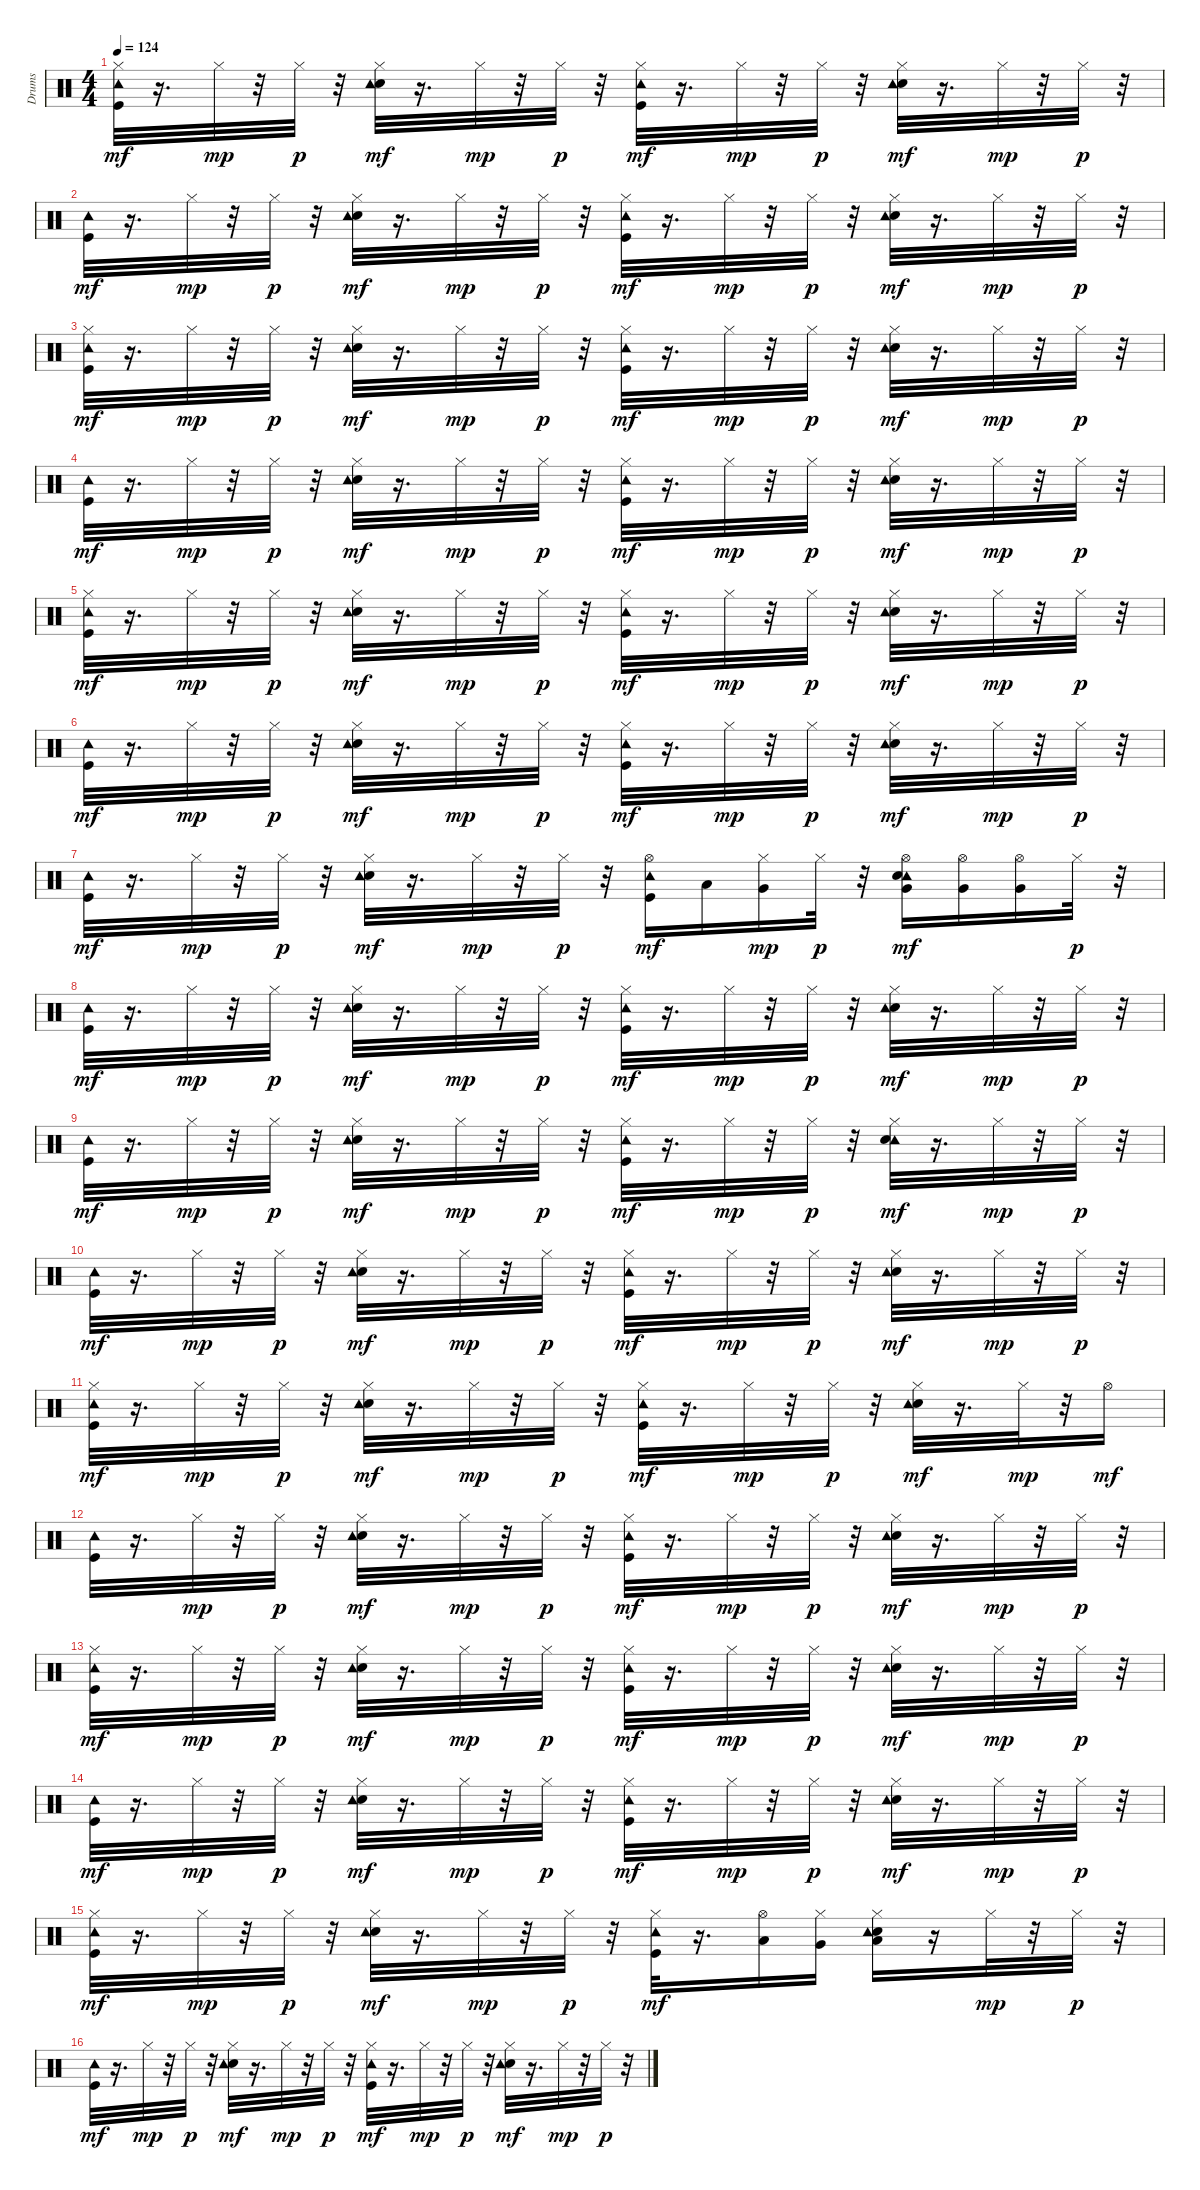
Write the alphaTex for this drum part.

\track ("Drums" "Drums") {instrument percussion}
\staff {score}
\articulation defaults
\ts (4 4)
\tempo 124
\clef neutral
\ks c
("Tambourine (hit)" "Hi-Hat (closed)" "Kick (hit)").32{dy mf} r.16{d} "Hi-Hat (closed)".32{dy mp} r.32 "Hi-Hat (closed)".32{dy p} r.32 ("Hi-Hat (closed)" "Snare (hit) 2" "Tambourine (hit)").32{dy mf} r.16{d} "Hi-Hat (closed)".32{dy mp} r.32 "Hi-Hat (closed)".32{dy p} r.32 ("Kick (hit)" "Tambourine (hit)" "Hi-Hat (closed)").32{dy mf} r.16{d} "Hi-Hat (closed)".32{dy mp} r.32 "Hi-Hat (closed)".32{dy p} r.32 ("Snare (hit) 2" "Tambourine (hit)" "Hi-Hat (closed)").32{dy mf} r.16{d} "Hi-Hat (closed)".32{dy mp} r.32 "Hi-Hat (closed)".32{dy p} r.32 |
("Tambourine (hit)" "Kick (hit)").32{dy mf} r.16{d} "Hi-Hat (closed)".32{dy mp} r.32 "Hi-Hat (closed)".32{dy p} r.32 ("Snare (hit) 2" "Tambourine (hit)" "Hi-Hat (closed)").32{dy mf} r.16{d} "Hi-Hat (closed)".32{dy mp} r.32 "Hi-Hat (closed)".32{dy p} r.32 ("Kick (hit)" "Tambourine (hit)" "Hi-Hat (closed)").32{dy mf} r.16{d} "Hi-Hat (closed)".32{dy mp} r.32 "Hi-Hat (closed)".32{dy p} r.32 ("Snare (hit) 2" "Tambourine (hit)" "Hi-Hat (closed)").32{dy mf} r.16{d} "Hi-Hat (closed)".32{dy mp} r.32 "Hi-Hat (closed)".32{dy p} r.32 |
("Tambourine (hit)" "Hi-Hat (closed)" "Kick (hit)").32{dy mf} r.16{d} "Hi-Hat (closed)".32{dy mp} r.32 "Hi-Hat (closed)".32{dy p} r.32 ("Hi-Hat (closed)" "Snare (hit) 2" "Tambourine (hit)").32{dy mf} r.16{d} "Hi-Hat (closed)".32{dy mp} r.32 "Hi-Hat (closed)".32{dy p} r.32 ("Kick (hit)" "Tambourine (hit)" "Hi-Hat (closed)").32{dy mf} r.16{d} "Hi-Hat (closed)".32{dy mp} r.32 "Hi-Hat (closed)".32{dy p} r.32 ("Snare (hit) 2" "Tambourine (hit)" "Hi-Hat (closed)").32{dy mf} r.16{d} "Hi-Hat (closed)".32{dy mp} r.32 "Hi-Hat (closed)".32{dy p} r.32 |
("Tambourine (hit)" "Kick (hit)").32{dy mf} r.16{d} "Hi-Hat (closed)".32{dy mp} r.32 "Hi-Hat (closed)".32{dy p} r.32 ("Snare (hit) 2" "Tambourine (hit)" "Hi-Hat (closed)").32{dy mf} r.16{d} "Hi-Hat (closed)".32{dy mp} r.32 "Hi-Hat (closed)".32{dy p} r.32 ("Kick (hit)" "Tambourine (hit)" "Hi-Hat (closed)").32{dy mf} r.16{d} "Hi-Hat (closed)".32{dy mp} r.32 "Hi-Hat (closed)".32{dy p} r.32 ("Snare (hit) 2" "Tambourine (hit)" "Hi-Hat (closed)").32{dy mf} r.16{d} "Hi-Hat (closed)".32{dy mp} r.32 "Hi-Hat (closed)".32{dy p} r.32 |
("Tambourine (hit)" "Hi-Hat (closed)" "Kick (hit)").32{dy mf} r.16{d} "Hi-Hat (closed)".32{dy mp} r.32 "Hi-Hat (closed)".32{dy p} r.32 ("Hi-Hat (closed)" "Snare (hit) 2" "Tambourine (hit)").32{dy mf} r.16{d} "Hi-Hat (closed)".32{dy mp} r.32 "Hi-Hat (closed)".32{dy p} r.32 ("Kick (hit)" "Tambourine (hit)" "Hi-Hat (closed)").32{dy mf} r.16{d} "Hi-Hat (closed)".32{dy mp} r.32 "Hi-Hat (closed)".32{dy p} r.32 ("Snare (hit) 2" "Tambourine (hit)" "Hi-Hat (closed)").32{dy mf} r.16{d} "Hi-Hat (closed)".32{dy mp} r.32 "Hi-Hat (closed)".32{dy p} r.32 |
("Tambourine (hit)" "Kick (hit)").32{dy mf} r.16{d} "Hi-Hat (closed)".32{dy mp} r.32 "Hi-Hat (closed)".32{dy p} r.32 ("Snare (hit) 2" "Tambourine (hit)" "Hi-Hat (closed)").32{dy mf} r.16{d} "Hi-Hat (closed)".32{dy mp} r.32 "Hi-Hat (closed)".32{dy p} r.32 ("Kick (hit)" "Tambourine (hit)" "Hi-Hat (closed)").32{dy mf} r.16{d} "Hi-Hat (closed)".32{dy mp} r.32 "Hi-Hat (closed)".32{dy p} r.32 ("Snare (hit) 2" "Tambourine (hit)" "Hi-Hat (closed)").32{dy mf} r.16{d} "Hi-Hat (closed)".32{dy mp} r.32 "Hi-Hat (closed)".32{dy p} r.32 |
("Tambourine (hit)" "Kick (hit)").32{dy mf} r.16{d} "Hi-Hat (closed)".32{dy mp} r.32 "Hi-Hat (closed)".32{dy p} r.32 ("Hi-Hat (closed)" "Snare (hit) 2" "Tambourine (hit)").32{dy mf} r.16{d} "Hi-Hat (closed)".32{dy mp} r.32 "Hi-Hat (closed)".32{dy p} r.32 ("Hi-Hat (open)" "Kick (hit)" "Tambourine (hit)").16{dy mf} "Low Floor Tom (hit)".16 ("Very Low Tom (hit)" "Hi-Hat (closed)").16{dy mp} "Hi-Hat (closed)".32{dy p} r.32 ("Very Low Tom (hit)" "Tambourine (hit)" "Hi-Hat (open)" "Snare (hit) 2").16{dy mf} ("Very Low Tom (hit)" "Hi-Hat (open)").16 ("Very Low Tom (hit)" "Hi-Hat (open)").16 "Hi-Hat (closed)".32{dy p} r.32 |
("Tambourine (hit)" "Kick (hit)").32{dy mf} r.16{d} "Hi-Hat (closed)".32{dy mp} r.32 "Hi-Hat (closed)".32{dy p} r.32 ("Snare (hit) 2" "Tambourine (hit)" "Hi-Hat (closed)").32{dy mf} r.16{d} "Hi-Hat (closed)".32{dy mp} r.32 "Hi-Hat (closed)".32{dy p} r.32 ("Kick (hit)" "Tambourine (hit)" "Hi-Hat (closed)").32{dy mf} r.16{d} "Hi-Hat (closed)".32{dy mp} r.32 "Hi-Hat (closed)".32{dy p} r.32 ("Snare (hit) 2" "Tambourine (hit)" "Hi-Hat (closed)").32{dy mf} r.16{d} "Hi-Hat (closed)".32{dy mp} r.32 "Hi-Hat (closed)".32{dy p} r.32 |
("Kick (hit)" "Tambourine (hit)").32{dy mf} r.16{d} "Hi-Hat (closed)".32{dy mp} r.32 "Hi-Hat (closed)".32{dy p} r.32 ("Snare (hit) 2" "Tambourine (hit)" "Hi-Hat (closed)").32{dy mf} r.16{d} "Hi-Hat (closed)".32{dy mp} r.32 "Hi-Hat (closed)".32{dy p} r.32 ("Kick (hit)" "Tambourine (hit)" "Hi-Hat (closed)").32{dy mf} r.16{d} "Hi-Hat (closed)".32{dy mp} r.32 "Hi-Hat (closed)".32{dy p} r.32 ("Tambourine (hit)" "Snare (hit) 2" "Hi-Hat (closed)").32{dy mf} r.16{d} "Hi-Hat (closed)".32{dy mp} r.32 "Hi-Hat (closed)".32{dy p} r.32 |
("Tambourine (hit)" "Kick (hit)").32{dy mf} r.16{d} "Hi-Hat (closed)".32{dy mp} r.32 "Hi-Hat (closed)".32{dy p} r.32 ("Snare (hit) 2" "Tambourine (hit)" "Hi-Hat (closed)").32{dy mf} r.16{d} "Hi-Hat (closed)".32{dy mp} r.32 "Hi-Hat (closed)".32{dy p} r.32 ("Tambourine (hit)" "Kick (hit)" "Hi-Hat (closed)").32{dy mf} r.16{d} "Hi-Hat (closed)".32{dy mp} r.32 "Hi-Hat (closed)".32{dy p} r.32 ("Snare (hit) 2" "Tambourine (hit)" "Hi-Hat (closed)").32{dy mf} r.16{d} "Hi-Hat (closed)".32{dy mp} r.32 "Hi-Hat (closed)".32{dy p} r.32 |
("Tambourine (hit)" "Hi-Hat (closed)" "Kick (hit)").32{dy mf} r.16{d} "Hi-Hat (closed)".32{dy mp} r.32 "Hi-Hat (closed)".32{dy p} r.32 ("Snare (hit) 2" "Tambourine (hit)" "Hi-Hat (closed)").32{dy mf} r.16{d} "Hi-Hat (closed)".32{dy mp} r.32 "Hi-Hat (closed)".32{dy p} r.32 ("Kick (hit)" "Tambourine (hit)" "Hi-Hat (closed)").32{dy mf} r.16{d} "Hi-Hat (closed)".32{dy mp} r.32 "Hi-Hat (closed)".32{dy p} r.32 ("Hi-Hat (closed)" "Snare (hit) 2" "Tambourine (hit)").32{dy mf} r.16{d} "Hi-Hat (closed)".32{dy mp} r.32 "Hi-Hat (open)".16{dy mf} |
("Tambourine (hit)" "Kick (hit)").32 r.16{d} "Hi-Hat (closed)".32{dy mp} r.32 "Hi-Hat (closed)".32{dy p} r.32 ("Snare (hit) 2" "Tambourine (hit)" "Hi-Hat (closed)").32{dy mf} r.16{d} "Hi-Hat (closed)".32{dy mp} r.32 "Hi-Hat (closed)".32{dy p} r.32 ("Tambourine (hit)" "Kick (hit)" "Hi-Hat (closed)").32{dy mf} r.16{d} "Hi-Hat (closed)".32{dy mp} r.32 "Hi-Hat (closed)".32{dy p} r.32 ("Snare (hit) 2" "Tambourine (hit)" "Hi-Hat (closed)").32{dy mf} r.16{d} "Hi-Hat (closed)".32{dy mp} r.32 "Hi-Hat (closed)".32{dy p} r.32 |
("Tambourine (hit)" "Hi-Hat (closed)" "Kick (hit)").32{dy mf} r.16{d} "Hi-Hat (closed)".32{dy mp} r.32 "Hi-Hat (closed)".32{dy p} r.32 ("Snare (hit) 2" "Tambourine (hit)" "Hi-Hat (closed)").32{dy mf} r.16{d} "Hi-Hat (closed)".32{dy mp} r.32 "Hi-Hat (closed)".32{dy p} r.32 ("Kick (hit)" "Tambourine (hit)" "Hi-Hat (closed)").32{dy mf} r.16{d} "Hi-Hat (closed)".32{dy mp} r.32 "Hi-Hat (closed)".32{dy p} r.32 ("Hi-Hat (closed)" "Snare (hit) 2" "Tambourine (hit)").32{dy mf} r.16{d} "Hi-Hat (closed)".32{dy mp} r.32 "Hi-Hat (closed)".32{dy p} r.32 |
("Tambourine (hit)" "Kick (hit)").32{dy mf} r.16{d} "Hi-Hat (closed)".32{dy mp} r.32 "Hi-Hat (closed)".32{dy p} r.32 ("Snare (hit) 2" "Tambourine (hit)" "Hi-Hat (closed)").32{dy mf} r.16{d} "Hi-Hat (closed)".32{dy mp} r.32 "Hi-Hat (closed)".32{dy p} r.32 ("Tambourine (hit)" "Kick (hit)" "Hi-Hat (closed)").32{dy mf} r.16{d} "Hi-Hat (closed)".32{dy mp} r.32 "Hi-Hat (closed)".32{dy p} r.32 ("Snare (hit) 2" "Tambourine (hit)" "Hi-Hat (closed)").32{dy mf} r.16{d} "Hi-Hat (closed)".32{dy mp} r.32 "Hi-Hat (closed)".32{dy p} r.32 |
("Tambourine (hit)" "Hi-Hat (closed)" "Kick (hit)").32{dy mf} r.16{d} "Hi-Hat (closed)".32{dy mp} r.32 "Hi-Hat (closed)".32{dy p} r.32 ("Snare (hit) 2" "Tambourine (hit)" "Hi-Hat (closed)").32{dy mf} r.16{d} "Hi-Hat (closed)".32{dy mp} r.32 "Hi-Hat (closed)".32{dy p} r.32 ("Kick (hit)" "Tambourine (hit)" "Hi-Hat (closed)").32{dy mf} r.16{d} ("Hi-Hat (open)" "Low Floor Tom (hit)").16 ("Hi-Hat (closed)" "Very Low Tom (hit)").16 ("Hi-Hat (closed)" "Snare (hit) 2" "Tambourine (hit)" "Low Floor Tom (hit)").16 r.16 "Hi-Hat (closed)".32{dy mp} r.32 "Hi-Hat (closed)".32{dy p} r.32 |
("Tambourine (hit)" "Kick (hit)").32{dy mf} r.16{d} "Hi-Hat (closed)".32{dy mp} r.32 "Hi-Hat (closed)".32{dy p} r.32 ("Hi-Hat (closed)" "Snare (hit) 2" "Tambourine (hit)").32{dy mf} r.16{d} "Hi-Hat (closed)".32{dy mp} r.32 "Hi-Hat (closed)".32{dy p} r.32 ("Kick (hit)" "Tambourine (hit)" "Hi-Hat (closed)").32{dy mf} r.16{d} "Hi-Hat (closed)".32{dy mp} r.32 "Hi-Hat (closed)".32{dy p} r.32 ("Snare (hit) 2" "Tambourine (hit)" "Hi-Hat (closed)").32{dy mf} r.16{d} "Hi-Hat (closed)".32{dy mp} r.32 "Hi-Hat (closed)".32{dy p} r.32
